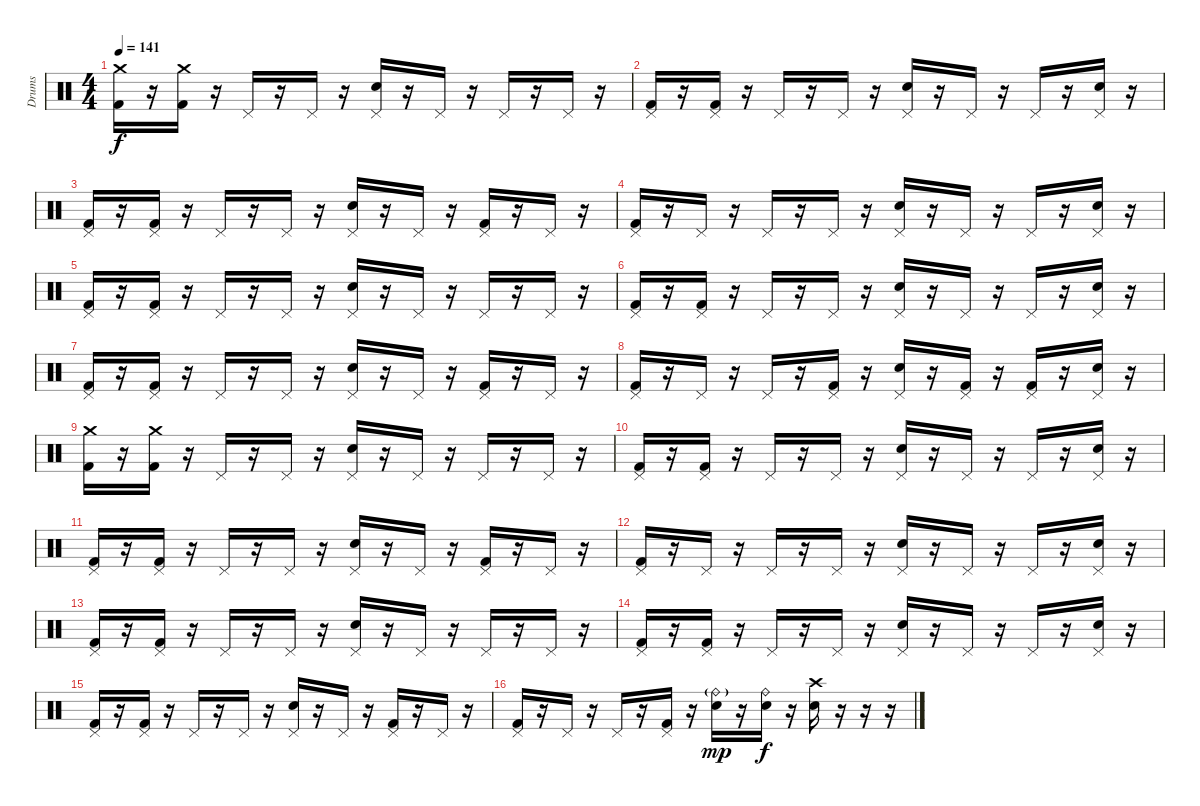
\track ("Drums" "Drums") {instrument percussion}
\staff {score}
\articulation defaults
\ts (4 4)
\tempo 141
\clef neutral
\ks c
("Crash medium (hit)" "Kick (hit) 2").16{dy f} r.16 ("Crash medium (hit)" "Kick (hit) 2").16 r.16 "Pedal Hi-Hat (hit)".16 r.16 "Pedal Hi-Hat (hit)".16 r.16 ("Pedal Hi-Hat (hit)" "Electric Snare (hit)").16 r.16 "Pedal Hi-Hat (hit)".16 r.16 "Pedal Hi-Hat (hit)".16 r.16 "Pedal Hi-Hat (hit)".16 r.16 |
("Pedal Hi-Hat (hit)" "Kick (hit) 2").16 r.16 ("Pedal Hi-Hat (hit)" "Kick (hit) 2").16 r.16 "Pedal Hi-Hat (hit)".16 r.16 "Pedal Hi-Hat (hit)".16 r.16 ("Pedal Hi-Hat (hit)" "Electric Snare (hit)").16 r.16 "Pedal Hi-Hat (hit)".16 r.16 "Pedal Hi-Hat (hit)".16 r.16 ("Pedal Hi-Hat (hit)" "Electric Snare (hit)").16 r.16 |
("Pedal Hi-Hat (hit)" "Kick (hit) 2").16 r.16 ("Pedal Hi-Hat (hit)" "Kick (hit) 2").16 r.16 "Pedal Hi-Hat (hit)".16 r.16 "Pedal Hi-Hat (hit)".16 r.16 ("Pedal Hi-Hat (hit)" "Electric Snare (hit)").16 r.16 "Pedal Hi-Hat (hit)".16 r.16 ("Pedal Hi-Hat (hit)" "Kick (hit) 2").16 r.16 "Pedal Hi-Hat (hit)".16 r.16 |
("Pedal Hi-Hat (hit)" "Kick (hit) 2").16 r.16 "Pedal Hi-Hat (hit)".16 r.16 "Pedal Hi-Hat (hit)".16 r.16 "Pedal Hi-Hat (hit)".16 r.16 ("Pedal Hi-Hat (hit)" "Electric Snare (hit)").16 r.16 "Pedal Hi-Hat (hit)".16 r.16 "Pedal Hi-Hat (hit)".16 r.16 ("Pedal Hi-Hat (hit)" "Electric Snare (hit)").16 r.16 |
("Pedal Hi-Hat (hit)" "Kick (hit) 2").16 r.16 ("Pedal Hi-Hat (hit)" "Kick (hit) 2").16 r.16 "Pedal Hi-Hat (hit)".16 r.16 "Pedal Hi-Hat (hit)".16 r.16 ("Pedal Hi-Hat (hit)" "Electric Snare (hit)").16 r.16 "Pedal Hi-Hat (hit)".16 r.16 "Pedal Hi-Hat (hit)".16 r.16 "Pedal Hi-Hat (hit)".16 r.16 |
("Pedal Hi-Hat (hit)" "Kick (hit) 2").16 r.16 ("Pedal Hi-Hat (hit)" "Kick (hit) 2").16 r.16 "Pedal Hi-Hat (hit)".16 r.16 "Pedal Hi-Hat (hit)".16 r.16 ("Pedal Hi-Hat (hit)" "Electric Snare (hit)").16 r.16 "Pedal Hi-Hat (hit)".16 r.16 "Pedal Hi-Hat (hit)".16 r.16 ("Pedal Hi-Hat (hit)" "Electric Snare (hit)").16 r.16 |
("Pedal Hi-Hat (hit)" "Kick (hit) 2").16 r.16 ("Pedal Hi-Hat (hit)" "Kick (hit) 2").16 r.16 "Pedal Hi-Hat (hit)".16 r.16 "Pedal Hi-Hat (hit)".16 r.16 ("Pedal Hi-Hat (hit)" "Electric Snare (hit)").16 r.16 "Pedal Hi-Hat (hit)".16 r.16 ("Pedal Hi-Hat (hit)" "Kick (hit) 2").16 r.16 "Pedal Hi-Hat (hit)".16 r.16 |
("Pedal Hi-Hat (hit)" "Kick (hit) 2").16 r.16 "Pedal Hi-Hat (hit)".16 r.16 "Pedal Hi-Hat (hit)".16 r.16 ("Pedal Hi-Hat (hit)" "Kick (hit) 2").16 r.16 ("Pedal Hi-Hat (hit)" "Electric Snare (hit)").16 r.16 ("Pedal Hi-Hat (hit)" "Kick (hit) 2").16 r.16 ("Pedal Hi-Hat (hit)" "Kick (hit) 2").16 r.16 ("Pedal Hi-Hat (hit)" "Electric Snare (hit)").16 r.16 |
("Crash medium (hit)" "Kick (hit) 2").16 r.16 ("Crash medium (hit)" "Kick (hit) 2").16 r.16 "Pedal Hi-Hat (hit)".16 r.16 "Pedal Hi-Hat (hit)".16 r.16 ("Pedal Hi-Hat (hit)" "Electric Snare (hit)").16 r.16 "Pedal Hi-Hat (hit)".16 r.16 "Pedal Hi-Hat (hit)".16 r.16 "Pedal Hi-Hat (hit)".16 r.16 |
("Pedal Hi-Hat (hit)" "Kick (hit) 2").16 r.16 ("Pedal Hi-Hat (hit)" "Kick (hit) 2").16 r.16 "Pedal Hi-Hat (hit)".16 r.16 "Pedal Hi-Hat (hit)".16 r.16 ("Pedal Hi-Hat (hit)" "Electric Snare (hit)").16 r.16 "Pedal Hi-Hat (hit)".16 r.16 "Pedal Hi-Hat (hit)".16 r.16 ("Pedal Hi-Hat (hit)" "Electric Snare (hit)").16 r.16 |
("Pedal Hi-Hat (hit)" "Kick (hit) 2").16 r.16 ("Pedal Hi-Hat (hit)" "Kick (hit) 2").16 r.16 "Pedal Hi-Hat (hit)".16 r.16 "Pedal Hi-Hat (hit)".16 r.16 ("Pedal Hi-Hat (hit)" "Electric Snare (hit)").16 r.16 "Pedal Hi-Hat (hit)".16 r.16 ("Pedal Hi-Hat (hit)" "Kick (hit) 2").16 r.16 "Pedal Hi-Hat (hit)".16 r.16 |
("Pedal Hi-Hat (hit)" "Kick (hit) 2").16 r.16 "Pedal Hi-Hat (hit)".16 r.16 "Pedal Hi-Hat (hit)".16 r.16 "Pedal Hi-Hat (hit)".16 r.16 ("Pedal Hi-Hat (hit)" "Electric Snare (hit)").16 r.16 "Pedal Hi-Hat (hit)".16 r.16 "Pedal Hi-Hat (hit)".16 r.16 ("Pedal Hi-Hat (hit)" "Electric Snare (hit)").16 r.16 |
("Pedal Hi-Hat (hit)" "Kick (hit) 2").16 r.16 ("Pedal Hi-Hat (hit)" "Kick (hit) 2").16 r.16 "Pedal Hi-Hat (hit)".16 r.16 "Pedal Hi-Hat (hit)".16 r.16 ("Pedal Hi-Hat (hit)" "Electric Snare (hit)").16 r.16 "Pedal Hi-Hat (hit)".16 r.16 "Pedal Hi-Hat (hit)".16 r.16 "Pedal Hi-Hat (hit)".16 r.16 |
("Pedal Hi-Hat (hit)" "Kick (hit) 2").16 r.16 ("Pedal Hi-Hat (hit)" "Kick (hit) 2").16 r.16 "Pedal Hi-Hat (hit)".16 r.16 "Pedal Hi-Hat (hit)".16 r.16 ("Pedal Hi-Hat (hit)" "Electric Snare (hit)").16 r.16 "Pedal Hi-Hat (hit)".16 r.16 "Pedal Hi-Hat (hit)".16 r.16 ("Pedal Hi-Hat (hit)" "Electric Snare (hit)").16 r.16 |
("Pedal Hi-Hat (hit)" "Kick (hit) 2").16 r.16 ("Pedal Hi-Hat (hit)" "Kick (hit) 2").16 r.16 "Pedal Hi-Hat (hit)".16 r.16 "Pedal Hi-Hat (hit)".16 r.16 ("Pedal Hi-Hat (hit)" "Electric Snare (hit)").16 r.16 "Pedal Hi-Hat (hit)".16 r.16 ("Pedal Hi-Hat (hit)" "Kick (hit) 2").16 r.16 "Pedal Hi-Hat (hit)".16 r.16 |
("Pedal Hi-Hat (hit)" "Kick (hit) 2").16 r.16 "Pedal Hi-Hat (hit)".16 r.16 "Pedal Hi-Hat (hit)".16 r.16 ("Pedal Hi-Hat (hit)" "Kick (hit) 2").16 r.16 ("Ride (bell)"{g} "Electric Snare (hit)").16{dy mp} r.16 ("Ride (bell)" "Electric Snare (hit)").16{dy f} r.16 ("Crash high (hit)" "Electric Snare (hit)").16 r.16 r.16 r.16
